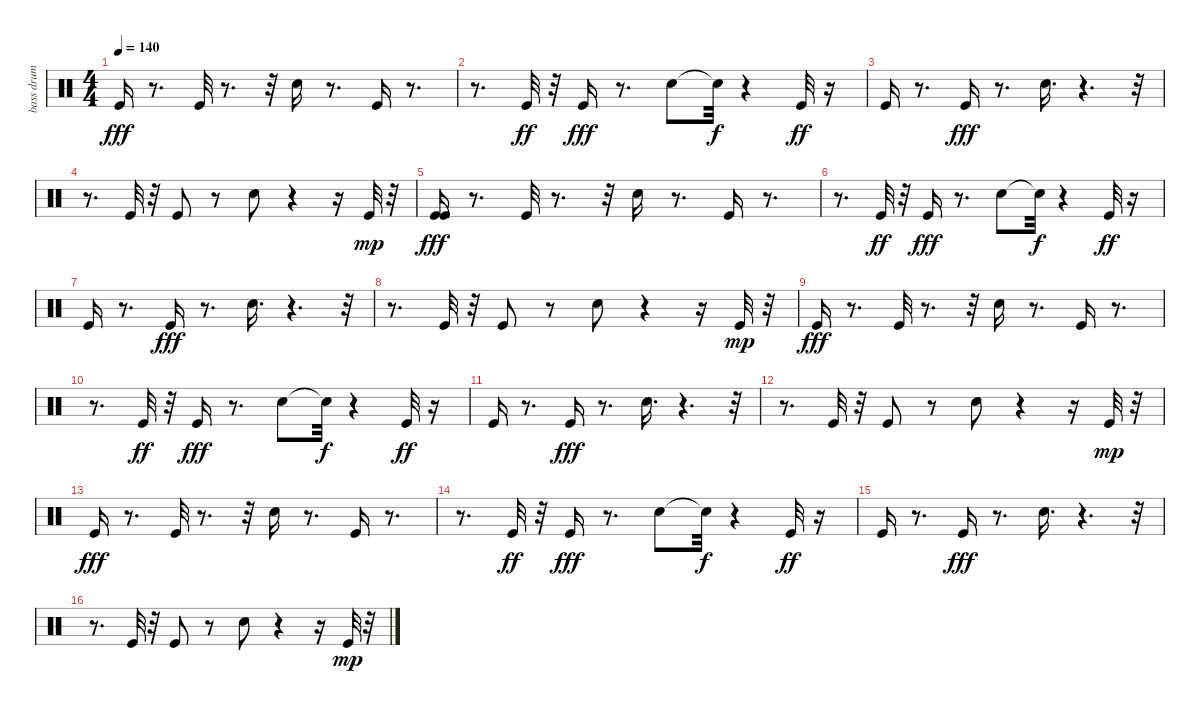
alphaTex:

\track ("bass drum" "bass drum") {instrument percussion}
\staff {score}
\articulation defaults
\ts (4 4)
\tempo 140
\clef neutral
\ks c "Kick (hit)".16{dy fff}
r.8{d} "Kick (hit)".32 r.8{d} r.32 "Electric Snare (hit)".16 r.8{d} "Kick (hit)".16 r.8{d} |
r.8{d} "Kick (hit)".32{dy ff} r.32 "Kick (hit)".16{dy fff} r.8{d} "Electric Snare (hit)".8 "Snare (hit)"{t}.32{dy f} r.4 "Kick (hit)".32{dy ff} r.16 |
"Kick (hit)".16 r.8{d} "Kick (hit)".16{dy fff} r.8{d} "Electric Snare (hit)".16{d} r.4{d} r.32 |
r.8{d} "Kick (hit)".32 r.32 "Kick (hit)".8 r.8 "Electric Snare (hit)".8 r.4 r.16 "Kick (hit)".32{dy mp} r.32 |
("Kick (hit)" "Kick (hit)").16{dy fff} r.8{d} "Kick (hit)".32 r.8{d} r.32 "Electric Snare (hit)".16 r.8{d} "Kick (hit)".16 r.8{d} |
r.8{d} "Kick (hit)".32{dy ff} r.32 "Kick (hit)".16{dy fff} r.8{d} "Electric Snare (hit)".8 "Snare (hit)"{t}.32{dy f} r.4 "Kick (hit)".32{dy ff} r.16 |
"Kick (hit)".16 r.8{d} "Kick (hit)".16{dy fff} r.8{d} "Electric Snare (hit)".16{d} r.4{d} r.32 |
r.8{d} "Kick (hit)".32 r.32 "Kick (hit)".8 r.8 "Electric Snare (hit)".8 r.4 r.16 "Kick (hit)".32{dy mp} r.32 |
"Kick (hit)".16{dy fff} r.8{d} "Kick (hit)".32 r.8{d} r.32 "Electric Snare (hit)".16 r.8{d} "Kick (hit)".16 r.8{d} |
r.8{d} "Kick (hit)".32{dy ff} r.32 "Kick (hit)".16{dy fff} r.8{d} "Electric Snare (hit)".8 "Snare (hit)"{t}.32{dy f} r.4 "Kick (hit)".32{dy ff} r.16 |
"Kick (hit)".16 r.8{d} "Kick (hit)".16{dy fff} r.8{d} "Electric Snare (hit)".16{d} r.4{d} r.32 |
r.8{d} "Kick (hit)".32 r.32 "Kick (hit)".8 r.8 "Electric Snare (hit)".8 r.4 r.16 "Kick (hit)".32{dy mp} r.32 |
"Kick (hit)".16{dy fff} r.8{d} "Kick (hit)".32 r.8{d} r.32 "Electric Snare (hit)".16 r.8{d} "Kick (hit)".16 r.8{d} |
r.8{d} "Kick (hit)".32{dy ff} r.32 "Kick (hit)".16{dy fff} r.8{d} "Electric Snare (hit)".8 "Snare (hit)"{t}.32{dy f} r.4 "Kick (hit)".32{dy ff} r.16 |
"Kick (hit)".16 r.8{d} "Kick (hit)".16{dy fff} r.8{d} "Electric Snare (hit)".16{d} r.4{d} r.32 |
r.8{d} "Kick (hit)".32 r.32 "Kick (hit)".8 r.8 "Electric Snare (hit)".8 r.4 r.16 "Kick (hit)".32{dy mp} r.32
